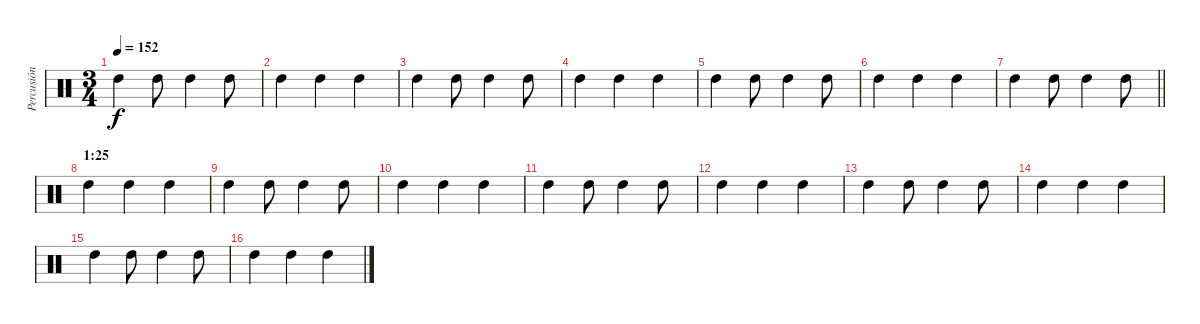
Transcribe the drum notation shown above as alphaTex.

\track ("Percusión" "Percusión") {instrument percussion}
\staff {score}
\articulation defaults
\ts (3 4)
\tempo 152
\clef neutral
\ks c "High Tom (hit)".4{dy f} "High Tom (hit)".8 "High Tom (hit)".4 "High Tom (hit)".8
|
"High Tom (hit)".4 "High Tom (hit)".4 "High Tom (hit)".4 |
"High Tom (hit)".4 "High Tom (hit)".8 "High Tom (hit)".4 "High Tom (hit)".8 |
"High Tom (hit)".4 "High Tom (hit)".4 "High Tom (hit)".4 |
"High Tom (hit)".4 "High Tom (hit)".8 "High Tom (hit)".4 "High Tom (hit)".8 |
"High Tom (hit)".4 "High Tom (hit)".4 "High Tom (hit)".4 |
\barLineRight lightlight "High Tom (hit)".4 "High Tom (hit)".8 "High Tom (hit)".4 "High Tom (hit)".8
|
\section ("" "1:25")
"High Tom (hit)".4 "High Tom (hit)".4 "High Tom (hit)".4 |
"High Tom (hit)".4 "High Tom (hit)".8 "High Tom (hit)".4 "High Tom (hit)".8 |
"High Tom (hit)".4 "High Tom (hit)".4 "High Tom (hit)".4 |
"High Tom (hit)".4 "High Tom (hit)".8 "High Tom (hit)".4 "High Tom (hit)".8 |
"High Tom (hit)".4 "High Tom (hit)".4 "High Tom (hit)".4 |
"High Tom (hit)".4 "High Tom (hit)".8 "High Tom (hit)".4 "High Tom (hit)".8 |
"High Tom (hit)".4 "High Tom (hit)".4 "High Tom (hit)".4 |
"High Tom (hit)".4 "High Tom (hit)".8 "High Tom (hit)".4 "High Tom (hit)".8 |
"High Tom (hit)".4 "High Tom (hit)".4 "High Tom (hit)".4
